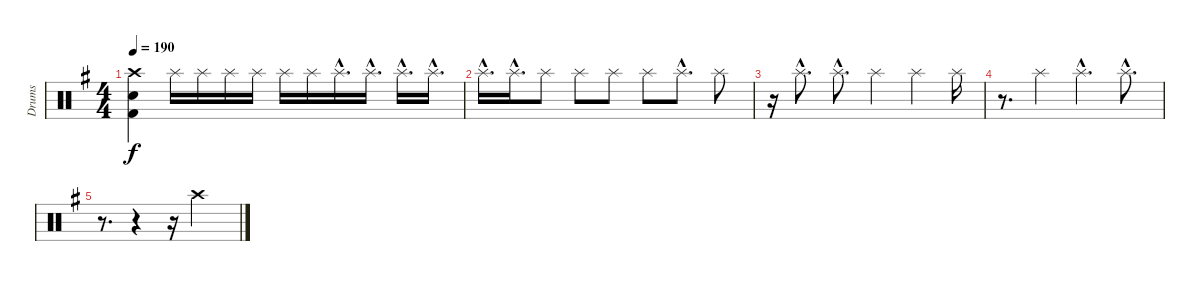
\track ("Drums" "Drums") {instrument percussion}
\staff {score}
\articulation defaults
\ts (4 4)
\tempo 190
\clef neutral
\ks eminor
("Crash high (hit)" "Electric Snare (hit)" "Kick (hit) 2").4{dy f} "Splash (hit)".16 "Splash (hit)".16 "Splash (hit)".16 "Splash (hit)".16 "Splash (hit)".16 "Splash (hit)".16 "Splash (hit)"{hac}.16{d} "Splash (hit)"{hac}.16{d} "Splash (hit)"{hac}.16{d} "Splash (hit)"{hac}.16{d} |
"Splash (hit)"{hac}.16{d} "Splash (hit)"{hac}.16{d} "Splash (hit)".8 "Splash (hit)".8 "Splash (hit)".8 "Splash (hit)".8 "Splash (hit)"{hac}.8{d} "Splash (hit)".8 |
r.16 "Splash (hit)"{hac}.8{d} "Splash (hit)"{hac}.8{d} "Splash (hit)".4 "Splash (hit)".4 "Splash (hit)".16 |
r.8{d} "Splash (hit)".4 "Splash (hit)"{hac}.4{d} "Splash (hit)"{hac}.8{d} |
r.8{d} r.4 r.16 "Crash high (hit)".2
